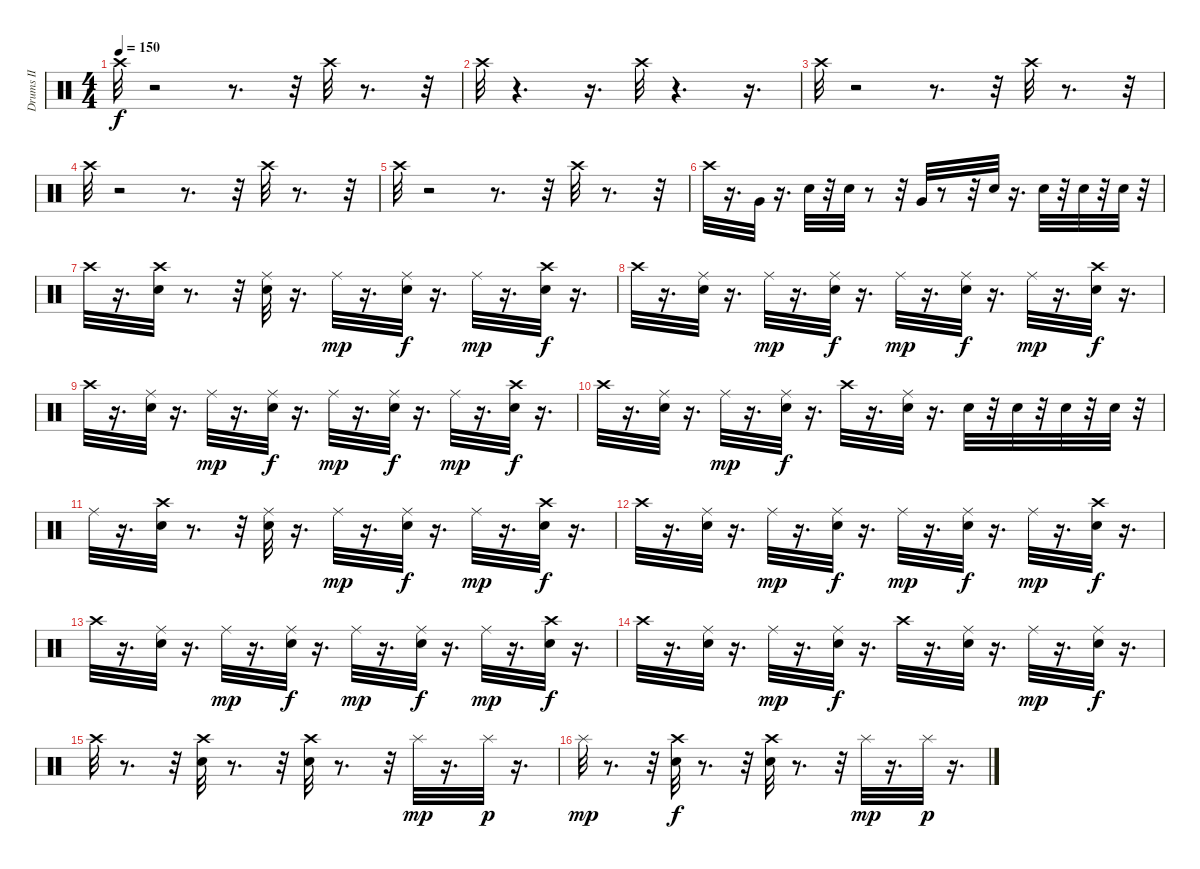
\track ("Drums II" "Drums II") {instrument percussion}
\staff {score}
\articulation defaults
\ts (4 4)
\tempo 150
\clef neutral
\ks c "Crash high (hit)".32{dy f}
r.2 r.8{d} r.32 "Crash high (hit)".32 r.8{d} r.32 |
"Crash high (hit)".32 r.4{d} r.16{d} "Crash high (hit)".32 r.4{d} r.16{d} |
"Crash high (hit)".32 r.2 r.8{d} r.32 "Crash high (hit)".32 r.8{d} r.32 |
"Crash high (hit)".32 r.2 r.8{d} r.32 "Crash high (hit)".32 r.8{d} r.32 |
"Crash high (hit)".32 r.2 r.8{d} r.32 "Crash high (hit)".32 r.8{d} r.32 |
"Crash high (hit)".32 r.16{d} "Very Low Tom (hit)".32 r.16{d} "Snare (hit) 2".32 r.32 "Snare (hit) 2".32 r.8 r.32 "Very Low Tom (hit)".32 r.8 r.32 "Snare (hit) 2".32 r.16{d} "Snare (hit) 2".32 r.32 "Snare (hit) 2".32 r.32 "Snare (hit) 2".32 r.32 |
"Crash high (hit)".32 r.16{d} ("Crash high (hit)" "Snare (hit) 2").32 r.8{d} r.32 ("Ride (middle)" "Snare (hit) 2").32 r.16{d} "Ride (middle)".32{dy mp} r.16{d} ("Snare (hit) 2" "Ride (middle)").32{dy f} r.16{d} "Ride (middle)".32{dy mp} r.16{d} ("Snare (hit) 2" "Crash high (hit)").32{dy f} r.16{d} |
"Crash high (hit)".32 r.16{d} ("Snare (hit) 2" "Ride (middle)").32 r.16{d} "Ride (middle)".32{dy mp} r.16{d} ("Snare (hit) 2" "Ride (middle)").32{dy f} r.16{d} "Ride (middle)".32{dy mp} r.16{d} ("Snare (hit) 2" "Ride (middle)").32{dy f} r.16{d} "Ride (middle)".32{dy mp} r.16{d} ("Snare (hit) 2" "Crash high (hit)").32{dy f} r.16{d} |
"Crash high (hit)".32 r.16{d} ("Snare (hit) 2" "Ride (middle)").32 r.16{d} "Ride (middle)".32{dy mp} r.16{d} ("Snare (hit) 2" "Ride (middle)").32{dy f} r.16{d} "Ride (middle)".32{dy mp} r.16{d} ("Snare (hit) 2" "Ride (middle)").32{dy f} r.16{d} "Ride (middle)".32{dy mp} r.16{d} ("Snare (hit) 2" "Crash high (hit)").32{dy f} r.16{d} |
"Crash high (hit)".32 r.16{d} ("Snare (hit) 2" "Ride (middle)").32 r.16{d} "Ride (middle)".32{dy mp} r.16{d} ("Snare (hit) 2" "Ride (middle)").32{dy f} r.16{d} "Crash high (hit)".32 r.16{d} ("Snare (hit) 2" "Ride (middle)").32 r.16{d} "Snare (hit) 2".32 r.32 "Snare (hit) 2".32 r.32 "Snare (hit) 2".32 r.32 "Snare (hit) 2".32 r.32 |
"Ride (middle)".32 r.16{d} ("Crash high (hit)" "Snare (hit) 2").32 r.8{d} r.32 ("Ride (middle)" "Snare (hit) 2").32 r.16{d} "Ride (middle)".32{dy mp} r.16{d} ("Snare (hit) 2" "Ride (middle)").32{dy f} r.16{d} "Ride (middle)".32{dy mp} r.16{d} ("Snare (hit) 2" "Crash high (hit)").32{dy f} r.16{d} |
"Crash high (hit)".32 r.16{d} ("Snare (hit) 2" "Ride (middle)").32 r.16{d} "Ride (middle)".32{dy mp} r.16{d} ("Snare (hit) 2" "Ride (middle)").32{dy f} r.16{d} "Ride (middle)".32{dy mp} r.16{d} ("Snare (hit) 2" "Ride (middle)").32{dy f} r.16{d} "Ride (middle)".32{dy mp} r.16{d} ("Snare (hit) 2" "Crash high (hit)").32{dy f} r.16{d} |
"Crash high (hit)".32 r.16{d} ("Snare (hit) 2" "Ride (middle)").32 r.16{d} "Ride (middle)".32{dy mp} r.16{d} ("Snare (hit) 2" "Ride (middle)").32{dy f} r.16{d} "Ride (middle)".32{dy mp} r.16{d} ("Snare (hit) 2" "Ride (middle)").32{dy f} r.16{d} "Ride (middle)".32{dy mp} r.16{d} ("Snare (hit) 2" "Crash high (hit)").32{dy f} r.16{d} |
"Crash high (hit)".32 r.16{d} ("Snare (hit) 2" "Ride (middle)").32 r.16{d} "Ride (middle)".32{dy mp} r.16{d} ("Snare (hit) 2" "Ride (middle)").32{dy f} r.16{d} "Crash high (hit)".32 r.16{d} ("Snare (hit) 2" "Ride (middle)").32 r.16{d} "Ride (middle)".32{dy mp} r.16{d} ("Snare (hit) 2" "Ride (middle)").32{dy f} r.16{d} |
"Crash high (hit)".32 r.8{d} r.32 ("Snare (hit) 2" "Crash high (hit)").32 r.8{d} r.32 ("Snare (hit) 2" "Crash high (hit)").32 r.8{d} r.32 "Splash (hit)".32{dy mp} r.16{d} "Splash (hit)".32{dy p} r.16{d} |
"Splash (hit)".32{dy mp} r.8{d} r.32 ("Crash high (hit)" "Snare (hit) 2").32{dy f} r.8{d} r.32 ("Crash high (hit)" "Snare (hit) 2").32 r.8{d} r.32 "Splash (hit)".32{dy mp} r.16{d} "Splash (hit)".32{dy p} r.16{d}
